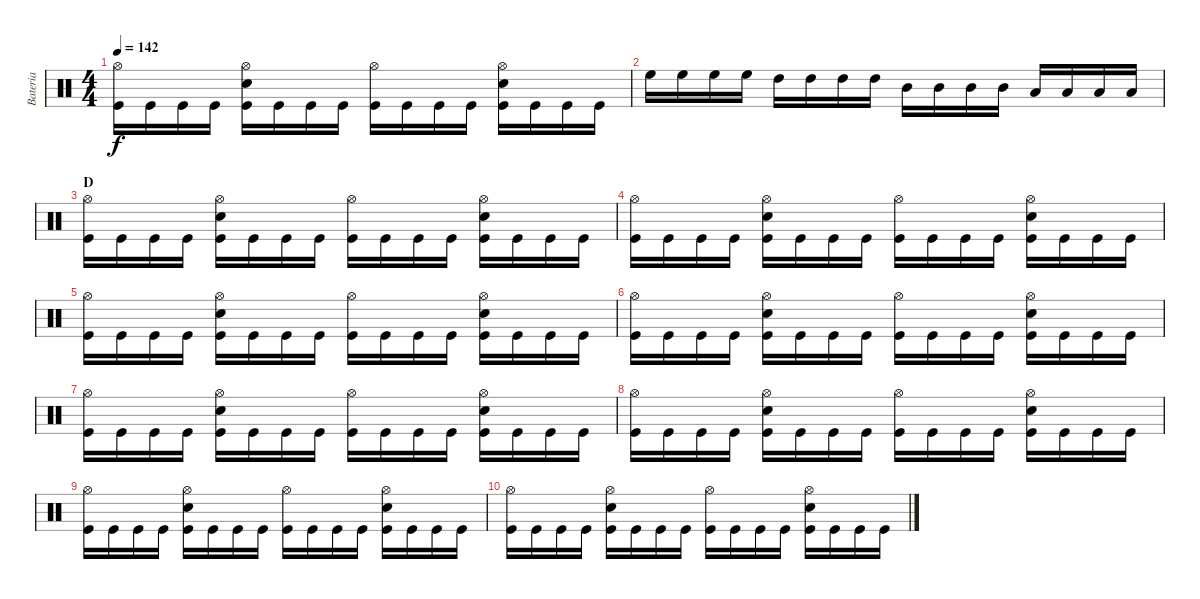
\track ("Bateria" "Bateria") {instrument percussion}
\staff {score}
\articulation defaults
\ts (4 4)
\tempo 142
\clef neutral
\ks c
("Hi-Hat (open)" "Kick (hit)").16{dy f} "Kick (hit)".16 "Kick (hit)".16 "Kick (hit)".16 ("Hi-Hat (open)" "Snare (hit) 2" "Kick (hit)").16 "Kick (hit)".16 "Kick (hit)".16 "Kick (hit)".16 ("Hi-Hat (open)" "Kick (hit)").16 "Kick (hit)".16 "Kick (hit)".16 "Kick (hit)".16 ("Hi-Hat (open)" "Snare (hit) 2" "Kick (hit)").16 "Kick (hit)".16 "Kick (hit)".16 "Kick (hit)".16 |
"High Floor Tom (hit)".16 "High Floor Tom (hit)".16 "High Floor Tom (hit)".16 "High Floor Tom (hit)".16 "High Tom (hit)".16 "High Tom (hit)".16 "High Tom (hit)".16 "High Tom (hit)".16 "Mid Tom (hit)".16 "Mid Tom (hit)".16 "Mid Tom (hit)".16 "Mid Tom (hit)".16 "Low Tom (hit)".16 "Low Tom (hit)".16 "Low Tom (hit)".16 "Low Tom (hit)".16 |
\section ("" "D")
("Hi-Hat (open)" "Kick (hit)").16 "Kick (hit)".16 "Kick (hit)".16 "Kick (hit)".16 ("Hi-Hat (open)" "Snare (hit) 2" "Kick (hit)").16 "Kick (hit)".16 "Kick (hit)".16 "Kick (hit)".16 ("Hi-Hat (open)" "Kick (hit)").16 "Kick (hit)".16 "Kick (hit)".16 "Kick (hit)".16 ("Hi-Hat (open)" "Snare (hit) 2" "Kick (hit)").16 "Kick (hit)".16 "Kick (hit)".16 "Kick (hit)".16 |
("Hi-Hat (open)" "Kick (hit)").16 "Kick (hit)".16 "Kick (hit)".16 "Kick (hit)".16 ("Hi-Hat (open)" "Snare (hit) 2" "Kick (hit)").16 "Kick (hit)".16 "Kick (hit)".16 "Kick (hit)".16 ("Hi-Hat (open)" "Kick (hit)").16 "Kick (hit)".16 "Kick (hit)".16 "Kick (hit)".16 ("Hi-Hat (open)" "Snare (hit) 2" "Kick (hit)").16 "Kick (hit)".16 "Kick (hit)".16 "Kick (hit)".16 |
("Hi-Hat (open)" "Kick (hit)").16 "Kick (hit)".16 "Kick (hit)".16 "Kick (hit)".16 ("Hi-Hat (open)" "Snare (hit) 2" "Kick (hit)").16 "Kick (hit)".16 "Kick (hit)".16 "Kick (hit)".16 ("Hi-Hat (open)" "Kick (hit)").16 "Kick (hit)".16 "Kick (hit)".16 "Kick (hit)".16 ("Hi-Hat (open)" "Snare (hit) 2" "Kick (hit)").16 "Kick (hit)".16 "Kick (hit)".16 "Kick (hit)".16 |
("Hi-Hat (open)" "Kick (hit)").16 "Kick (hit)".16 "Kick (hit)".16 "Kick (hit)".16 ("Hi-Hat (open)" "Snare (hit) 2" "Kick (hit)").16 "Kick (hit)".16 "Kick (hit)".16 "Kick (hit)".16 ("Hi-Hat (open)" "Kick (hit)").16 "Kick (hit)".16 "Kick (hit)".16 "Kick (hit)".16 ("Hi-Hat (open)" "Snare (hit) 2" "Kick (hit)").16 "Kick (hit)".16 "Kick (hit)".16 "Kick (hit)".16 |
("Hi-Hat (open)" "Kick (hit)").16 "Kick (hit)".16 "Kick (hit)".16 "Kick (hit)".16 ("Hi-Hat (open)" "Snare (hit) 2" "Kick (hit)").16 "Kick (hit)".16 "Kick (hit)".16 "Kick (hit)".16 ("Hi-Hat (open)" "Kick (hit)").16 "Kick (hit)".16 "Kick (hit)".16 "Kick (hit)".16 ("Hi-Hat (open)" "Snare (hit) 2" "Kick (hit)").16 "Kick (hit)".16 "Kick (hit)".16 "Kick (hit)".16 |
("Hi-Hat (open)" "Kick (hit)").16 "Kick (hit)".16 "Kick (hit)".16 "Kick (hit)".16 ("Hi-Hat (open)" "Snare (hit) 2" "Kick (hit)").16 "Kick (hit)".16 "Kick (hit)".16 "Kick (hit)".16 ("Hi-Hat (open)" "Kick (hit)").16 "Kick (hit)".16 "Kick (hit)".16 "Kick (hit)".16 ("Hi-Hat (open)" "Snare (hit) 2" "Kick (hit)").16 "Kick (hit)".16 "Kick (hit)".16 "Kick (hit)".16 |
("Hi-Hat (open)" "Kick (hit)").16 "Kick (hit)".16 "Kick (hit)".16 "Kick (hit)".16 ("Hi-Hat (open)" "Snare (hit) 2" "Kick (hit)").16 "Kick (hit)".16 "Kick (hit)".16 "Kick (hit)".16 ("Hi-Hat (open)" "Kick (hit)").16 "Kick (hit)".16 "Kick (hit)".16 "Kick (hit)".16 ("Hi-Hat (open)" "Snare (hit) 2" "Kick (hit)").16 "Kick (hit)".16 "Kick (hit)".16 "Kick (hit)".16 |
("Hi-Hat (open)" "Kick (hit)").16 "Kick (hit)".16 "Kick (hit)".16 "Kick (hit)".16 ("Hi-Hat (open)" "Snare (hit) 2" "Kick (hit)").16 "Kick (hit)".16 "Kick (hit)".16 "Kick (hit)".16 ("Hi-Hat (open)" "Kick (hit)").16 "Kick (hit)".16 "Kick (hit)".16 "Kick (hit)".16 ("Hi-Hat (open)" "Snare (hit) 2" "Kick (hit)").16 "Kick (hit)".16 "Kick (hit)".16 "Kick (hit)".16
